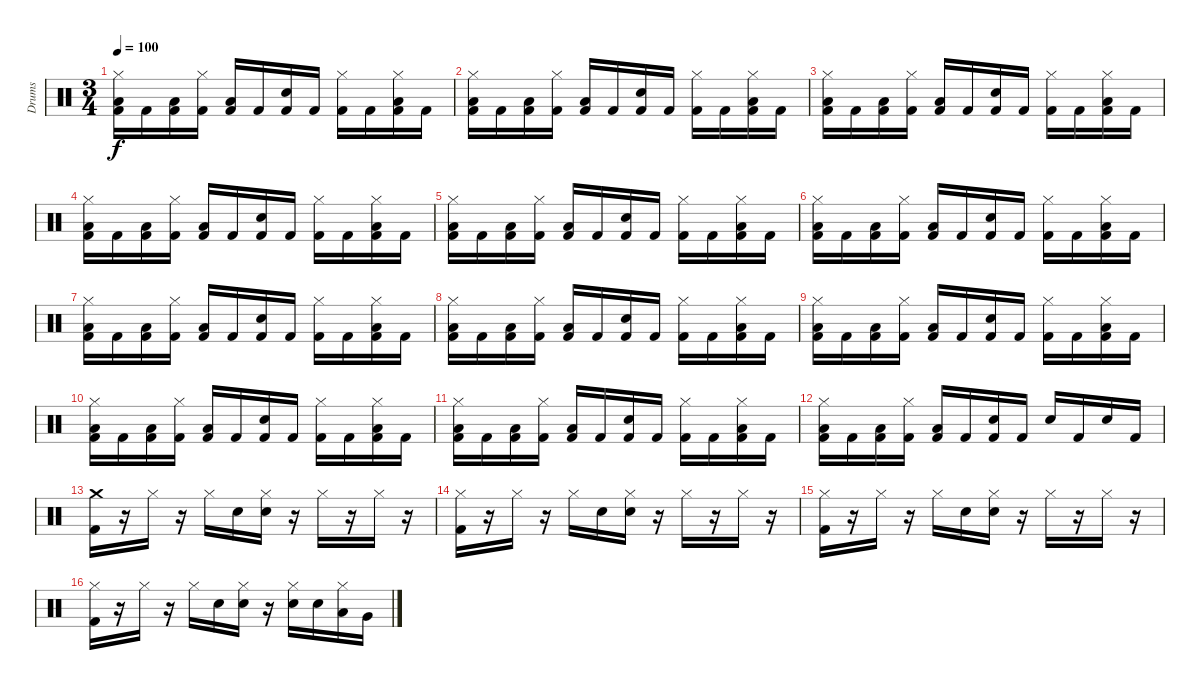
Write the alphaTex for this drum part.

\track ("Drums" "Drums") {instrument percussion}
\staff {score}
\articulation defaults
\ts (3 4)
\tempo 100
\clef neutral
\ks c
("Hi-Hat (closed)" "Low Floor Tom (hit)" "Kick (hit) 2").16{dy f} "Kick (hit) 2".16 ("Low Floor Tom (hit)" "Kick (hit) 2").16 ("Hi-Hat (closed)" "Kick (hit) 2").16 ("Low Floor Tom (hit)" "Kick (hit) 2").16 "Kick (hit) 2".16 ("Snare (hit) 2" "Kick (hit) 2").16 "Kick (hit) 2".16 ("Hi-Hat (closed)" "Kick (hit) 2").16 "Kick (hit) 2".16 ("Hi-Hat (closed)" "Low Floor Tom (hit)" "Kick (hit) 2").16 "Kick (hit) 2".16 |
("Hi-Hat (closed)" "Low Floor Tom (hit)" "Kick (hit) 2").16 "Kick (hit) 2".16 ("Low Floor Tom (hit)" "Kick (hit) 2").16 ("Hi-Hat (closed)" "Kick (hit) 2").16 ("Low Floor Tom (hit)" "Kick (hit) 2").16 "Kick (hit) 2".16 ("Snare (hit) 2" "Kick (hit) 2").16 "Kick (hit) 2".16 ("Hi-Hat (closed)" "Kick (hit) 2").16 "Kick (hit) 2".16 ("Hi-Hat (closed)" "Low Floor Tom (hit)" "Kick (hit) 2").16 "Kick (hit) 2".16 |
("Hi-Hat (closed)" "Low Floor Tom (hit)" "Kick (hit) 2").16 "Kick (hit) 2".16 ("Low Floor Tom (hit)" "Kick (hit) 2").16 ("Hi-Hat (closed)" "Kick (hit) 2").16 ("Low Floor Tom (hit)" "Kick (hit) 2").16 "Kick (hit) 2".16 ("Snare (hit) 2" "Kick (hit) 2").16 "Kick (hit) 2".16 ("Hi-Hat (closed)" "Kick (hit) 2").16 "Kick (hit) 2".16 ("Hi-Hat (closed)" "Low Floor Tom (hit)" "Kick (hit) 2").16 "Kick (hit) 2".16 |
("Hi-Hat (closed)" "Low Floor Tom (hit)" "Kick (hit) 2").16 "Kick (hit) 2".16 ("Low Floor Tom (hit)" "Kick (hit) 2").16 ("Hi-Hat (closed)" "Kick (hit) 2").16 ("Low Floor Tom (hit)" "Kick (hit) 2").16 "Kick (hit) 2".16 ("Snare (hit) 2" "Kick (hit) 2").16 "Kick (hit) 2".16 ("Hi-Hat (closed)" "Kick (hit) 2").16 "Kick (hit) 2".16 ("Hi-Hat (closed)" "Low Floor Tom (hit)" "Kick (hit) 2").16 "Kick (hit) 2".16 |
("Hi-Hat (closed)" "Low Floor Tom (hit)" "Kick (hit) 2").16 "Kick (hit) 2".16 ("Low Floor Tom (hit)" "Kick (hit) 2").16 ("Hi-Hat (closed)" "Kick (hit) 2").16 ("Low Floor Tom (hit)" "Kick (hit) 2").16 "Kick (hit) 2".16 ("Snare (hit) 2" "Kick (hit) 2").16 "Kick (hit) 2".16 ("Hi-Hat (closed)" "Kick (hit) 2").16 "Kick (hit) 2".16 ("Hi-Hat (closed)" "Low Floor Tom (hit)" "Kick (hit) 2").16 "Kick (hit) 2".16 |
("Hi-Hat (closed)" "Low Floor Tom (hit)" "Kick (hit) 2").16 "Kick (hit) 2".16 ("Low Floor Tom (hit)" "Kick (hit) 2").16 ("Hi-Hat (closed)" "Kick (hit) 2").16 ("Low Floor Tom (hit)" "Kick (hit) 2").16 "Kick (hit) 2".16 ("Snare (hit) 2" "Kick (hit) 2").16 "Kick (hit) 2".16 ("Hi-Hat (closed)" "Kick (hit) 2").16 "Kick (hit) 2".16 ("Hi-Hat (closed)" "Low Floor Tom (hit)" "Kick (hit) 2").16 "Kick (hit) 2".16 |
("Hi-Hat (closed)" "Low Floor Tom (hit)" "Kick (hit) 2").16 "Kick (hit) 2".16 ("Low Floor Tom (hit)" "Kick (hit) 2").16 ("Hi-Hat (closed)" "Kick (hit) 2").16 ("Low Floor Tom (hit)" "Kick (hit) 2").16 "Kick (hit) 2".16 ("Snare (hit) 2" "Kick (hit) 2").16 "Kick (hit) 2".16 ("Hi-Hat (closed)" "Kick (hit) 2").16 "Kick (hit) 2".16 ("Hi-Hat (closed)" "Low Floor Tom (hit)" "Kick (hit) 2").16 "Kick (hit) 2".16 |
("Hi-Hat (closed)" "Low Floor Tom (hit)" "Kick (hit) 2").16 "Kick (hit) 2".16 ("Low Floor Tom (hit)" "Kick (hit) 2").16 ("Hi-Hat (closed)" "Kick (hit) 2").16 ("Low Floor Tom (hit)" "Kick (hit) 2").16 "Kick (hit) 2".16 ("Snare (hit) 2" "Kick (hit) 2").16 "Kick (hit) 2".16 ("Hi-Hat (closed)" "Kick (hit) 2").16 "Kick (hit) 2".16 ("Hi-Hat (closed)" "Low Floor Tom (hit)" "Kick (hit) 2").16 "Kick (hit) 2".16 |
("Hi-Hat (closed)" "Low Floor Tom (hit)" "Kick (hit) 2").16 "Kick (hit) 2".16 ("Low Floor Tom (hit)" "Kick (hit) 2").16 ("Hi-Hat (closed)" "Kick (hit) 2").16 ("Low Floor Tom (hit)" "Kick (hit) 2").16 "Kick (hit) 2".16 ("Snare (hit) 2" "Kick (hit) 2").16 "Kick (hit) 2".16 ("Hi-Hat (closed)" "Kick (hit) 2").16 "Kick (hit) 2".16 ("Hi-Hat (closed)" "Low Floor Tom (hit)" "Kick (hit) 2").16 "Kick (hit) 2".16 |
("Hi-Hat (closed)" "Low Floor Tom (hit)" "Kick (hit) 2").16 "Kick (hit) 2".16 ("Low Floor Tom (hit)" "Kick (hit) 2").16 ("Hi-Hat (closed)" "Kick (hit) 2").16 ("Low Floor Tom (hit)" "Kick (hit) 2").16 "Kick (hit) 2".16 ("Snare (hit) 2" "Kick (hit) 2").16 "Kick (hit) 2".16 ("Hi-Hat (closed)" "Kick (hit) 2").16 "Kick (hit) 2".16 ("Hi-Hat (closed)" "Low Floor Tom (hit)" "Kick (hit) 2").16 "Kick (hit) 2".16 |
("Hi-Hat (closed)" "Low Floor Tom (hit)" "Kick (hit) 2").16 "Kick (hit) 2".16 ("Low Floor Tom (hit)" "Kick (hit) 2").16 ("Hi-Hat (closed)" "Kick (hit) 2").16 ("Low Floor Tom (hit)" "Kick (hit) 2").16 "Kick (hit) 2".16 ("Snare (hit) 2" "Kick (hit) 2").16 "Kick (hit) 2".16 ("Hi-Hat (closed)" "Kick (hit) 2").16 "Kick (hit) 2".16 ("Hi-Hat (closed)" "Low Floor Tom (hit)" "Kick (hit) 2").16 "Kick (hit) 2".16 |
("Hi-Hat (closed)" "Low Floor Tom (hit)" "Kick (hit) 2").16 "Kick (hit) 2".16 ("Low Floor Tom (hit)" "Kick (hit) 2").16 ("Hi-Hat (closed)" "Kick (hit) 2").16 ("Low Floor Tom (hit)" "Kick (hit) 2").16 "Kick (hit) 2".16 ("Snare (hit) 2" "Kick (hit) 2").16 "Kick (hit) 2".16 "Snare (hit) 2".16 "Kick (hit) 2".16 "Snare (hit) 2".16 "Kick (hit) 2".16 |
("Crash medium (hit)" "Kick (hit) 2").16 r.16 "Hi-Hat (closed)".16 r.16 "Hi-Hat (closed)".16 "Snare (hit) 2".16 ("Hi-Hat (closed)" "Snare (hit) 2").16 r.16 "Hi-Hat (closed)".16 r.16 "Hi-Hat (closed)".16 r.16 |
("Hi-Hat (closed)" "Kick (hit) 2").16 r.16 "Hi-Hat (closed)".16 r.16 "Hi-Hat (closed)".16 "Snare (hit) 2".16 ("Hi-Hat (closed)" "Snare (hit) 2").16 r.16 "Hi-Hat (closed)".16 r.16 "Hi-Hat (closed)".16 r.16 |
("Hi-Hat (closed)" "Kick (hit) 2").16 r.16 "Hi-Hat (closed)".16 r.16 "Hi-Hat (closed)".16 "Snare (hit) 2".16 ("Hi-Hat (closed)" "Snare (hit) 2").16 r.16 "Hi-Hat (closed)".16 r.16 "Hi-Hat (closed)".16 r.16 |
("Hi-Hat (closed)" "Kick (hit) 2").16 r.16 "Hi-Hat (closed)".16 r.16 "Hi-Hat (closed)".16 "Snare (hit) 2".16 ("Hi-Hat (closed)" "Snare (hit) 2").16 r.16 ("Hi-Hat (closed)" "Snare (hit) 2").16 "Snare (hit) 2".16 ("Hi-Hat (closed)" "Low Tom (hit)").16 "Very Low Tom (hit)".16
